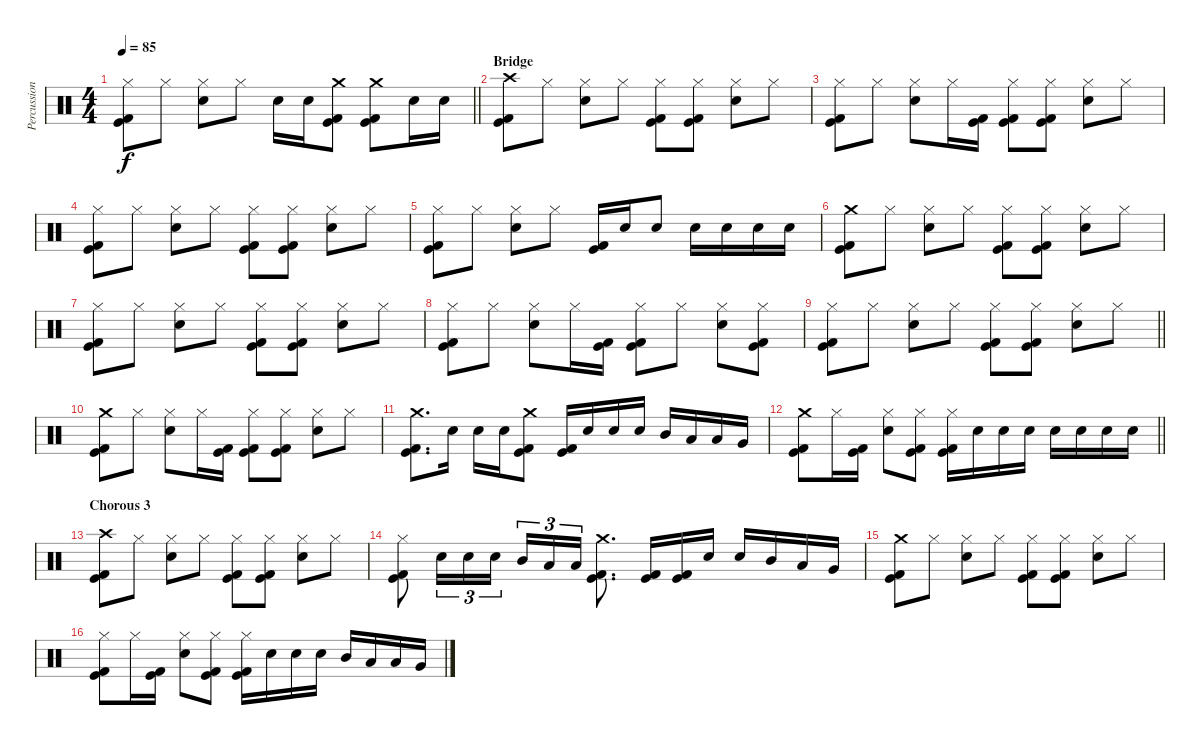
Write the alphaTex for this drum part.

\track ("Percussion" "Percussion") {instrument percussion}
\staff {score}
\articulation defaults
\ts (4 4)
\tempo 85
\clef neutral
\barLineRight lightlight
\ks c
("Hi-Hat (closed)" "Kick (hit)" "Kick (hit) 2").8{dy f} "Hi-Hat (closed)".8 ("Hi-Hat (closed)" "Electric Snare (hit)").8 "Hi-Hat (closed)".8 "Electric Snare (hit)".16 "Electric Snare (hit)".16 ("Crash medium (hit)" "Kick (hit)" "Kick (hit) 2").8 ("Crash medium (hit)" "Kick (hit)" "Kick (hit) 2").8 "Electric Snare (hit)".16 "Electric Snare (hit)".16 |
\section ("" "Bridge")
("Crash high (hit)" "Kick (hit)" "Kick (hit) 2").8 "Hi-Hat (closed)".8 ("Hi-Hat (closed)" "Electric Snare (hit)").8 "Hi-Hat (closed)".8 ("Hi-Hat (closed)" "Kick (hit)" "Kick (hit) 2").8 ("Hi-Hat (closed)" "Kick (hit)" "Kick (hit) 2").8 ("Hi-Hat (closed)" "Electric Snare (hit)").8 "Hi-Hat (closed)".8 |
("Hi-Hat (closed)" "Kick (hit)" "Kick (hit) 2").8 "Hi-Hat (closed)".8 ("Hi-Hat (closed)" "Electric Snare (hit)").8 "Hi-Hat (closed)".16 ("Kick (hit)" "Kick (hit) 2").16 ("Hi-Hat (closed)" "Kick (hit)" "Kick (hit) 2").8 ("Hi-Hat (closed)" "Kick (hit)" "Kick (hit) 2").8 ("Hi-Hat (closed)" "Electric Snare (hit)").8 "Hi-Hat (closed)".8 |
("Hi-Hat (closed)" "Kick (hit)" "Kick (hit) 2").8 "Hi-Hat (closed)".8 ("Hi-Hat (closed)" "Electric Snare (hit)").8 "Hi-Hat (closed)".8 ("Hi-Hat (closed)" "Kick (hit)" "Kick (hit) 2").8 ("Hi-Hat (closed)" "Kick (hit)" "Kick (hit) 2").8 ("Hi-Hat (closed)" "Electric Snare (hit)").8 "Hi-Hat (closed)".8 |
("Hi-Hat (closed)" "Kick (hit)" "Kick (hit) 2").8 "Hi-Hat (closed)".8 ("Hi-Hat (closed)" "Electric Snare (hit)").8 "Hi-Hat (closed)".8 ("Kick (hit)" "Kick (hit) 2").16 "Electric Snare (hit)".16 "Electric Snare (hit)".8 "Electric Snare (hit)".16 "Electric Snare (hit)".16 "Electric Snare (hit)".16 "Electric Snare (hit)".16 |
("Crash medium (hit)" "Kick (hit)" "Kick (hit) 2").8 "Hi-Hat (closed)".8 ("Hi-Hat (closed)" "Electric Snare (hit)").8 "Hi-Hat (closed)".8 ("Hi-Hat (closed)" "Kick (hit)" "Kick (hit) 2").8 ("Hi-Hat (closed)" "Kick (hit)" "Kick (hit) 2").8 ("Hi-Hat (closed)" "Electric Snare (hit)").8 "Hi-Hat (closed)".8 |
("Hi-Hat (closed)" "Kick (hit)" "Kick (hit) 2").8 "Hi-Hat (closed)".8 ("Hi-Hat (closed)" "Electric Snare (hit)").8 "Hi-Hat (closed)".8 ("Hi-Hat (closed)" "Kick (hit)" "Kick (hit) 2").8 ("Hi-Hat (closed)" "Kick (hit)" "Kick (hit) 2").8 ("Hi-Hat (closed)" "Electric Snare (hit)").8 "Hi-Hat (closed)".8 |
("Hi-Hat (closed)" "Kick (hit)" "Kick (hit) 2").8 "Hi-Hat (closed)".8 ("Hi-Hat (closed)" "Electric Snare (hit)").8 "Hi-Hat (closed)".16 ("Kick (hit)" "Kick (hit) 2").16 ("Hi-Hat (closed)" "Kick (hit)" "Kick (hit) 2").8 "Hi-Hat (closed)".8 ("Hi-Hat (closed)" "Electric Snare (hit)").8 ("Hi-Hat (closed)" "Kick (hit)" "Kick (hit) 2").8 |
\barLineRight lightlight
("Hi-Hat (closed)" "Kick (hit)" "Kick (hit) 2").8 "Hi-Hat (closed)".8 ("Hi-Hat (closed)" "Electric Snare (hit)").8 "Hi-Hat (closed)".8 ("Hi-Hat (closed)" "Kick (hit)" "Kick (hit) 2").8 ("Hi-Hat (closed)" "Kick (hit)" "Kick (hit) 2").8 ("Hi-Hat (closed)" "Electric Snare (hit)").8 "Hi-Hat (closed)".8 |
\section ("" "")
("Crash medium (hit)" "Kick (hit)" "Kick (hit) 2").8 "Hi-Hat (closed)".8 ("Hi-Hat (closed)" "Electric Snare (hit)").8 "Hi-Hat (closed)".16 ("Kick (hit)" "Kick (hit) 2").16 ("Hi-Hat (closed)" "Kick (hit)" "Kick (hit) 2").8 ("Hi-Hat (closed)" "Kick (hit)" "Kick (hit) 2").8 ("Hi-Hat (closed)" "Electric Snare (hit)").8 "Hi-Hat (closed)".8 |
("Crash medium (hit)" "Kick (hit)" "Kick (hit) 2").8{d} "Electric Snare (hit)".16 "Electric Snare (hit)".16 "Electric Snare (hit)".16 ("Crash medium (hit)" "Kick (hit)" "Kick (hit) 2").8 ("Kick (hit)" "Kick (hit) 2").16 "Electric Snare (hit)".16 "Electric Snare (hit)".16 "Electric Snare (hit)".16 "Mid Tom (hit)".16 "Low Tom (hit)".16 "Low Tom (hit)".16 "Very Low Tom (hit)".16 |
\barLineRight lightlight
("Crash medium (hit)" "Kick (hit)" "Kick (hit) 2").8 "Hi-Hat (closed)".16 ("Kick (hit)" "Kick (hit) 2").16 ("Hi-Hat (closed)" "Electric Snare (hit)").8 ("Hi-Hat (closed)" "Kick (hit)" "Kick (hit) 2").8 ("Hi-Hat (closed)" "Kick (hit)" "Kick (hit) 2").16 "Electric Snare (hit)".16 "Electric Snare (hit)".16 "Electric Snare (hit)".16 "Electric Snare (hit)".16 "Electric Snare (hit)".16 "Electric Snare (hit)".16 "Electric Snare (hit)".16 |
\section ("" "Chorous 3")
("Crash high (hit)" "Kick (hit)" "Kick (hit) 2").8 "Hi-Hat (closed)".8 ("Hi-Hat (closed)" "Electric Snare (hit)").8 "Hi-Hat (closed)".8 ("Hi-Hat (closed)" "Kick (hit)" "Kick (hit) 2").8 ("Hi-Hat (closed)" "Kick (hit)" "Kick (hit) 2").8 ("Hi-Hat (closed)" "Electric Snare (hit)").8 "Hi-Hat (closed)".8 |
("Hi-Hat (closed)" "Kick (hit)" "Kick (hit) 2").8 "Electric Snare (hit)".16{tu (3 2)} "Electric Snare (hit)".16{tu (3 2)} "Electric Snare (hit)".16{tu (3 2)} "Mid Tom (hit)".16{tu (3 2)} "Low Tom (hit)".16{tu (3 2)} "Low Tom (hit)".16{tu (3 2)} ("Crash medium (hit)" "Kick (hit)" "Kick (hit) 2").8{d} ("Kick (hit)" "Kick (hit) 2").16 ("Kick (hit)" "Kick (hit) 2").16 "Electric Snare (hit)".16 "Electric Snare (hit)".16 "Mid Tom (hit)".16 "Low Tom (hit)".16 "Very Low Tom (hit)".16 |
("Crash medium (hit)" "Kick (hit)" "Kick (hit) 2").8 "Hi-Hat (closed)".8 ("Hi-Hat (closed)" "Electric Snare (hit)").8 "Hi-Hat (closed)".8 ("Hi-Hat (closed)" "Kick (hit)" "Kick (hit) 2").8 ("Hi-Hat (closed)" "Kick (hit)" "Kick (hit) 2").8 ("Hi-Hat (closed)" "Electric Snare (hit)").8 "Hi-Hat (closed)".8 |
("Hi-Hat (closed)" "Kick (hit)" "Kick (hit) 2").8 "Hi-Hat (closed)".16 ("Kick (hit)" "Kick (hit) 2").16 ("Hi-Hat (closed)" "Electric Snare (hit)").8 ("Hi-Hat (closed)" "Kick (hit)" "Kick (hit) 2").8 ("Hi-Hat (closed)" "Kick (hit)" "Kick (hit) 2").16 "Electric Snare (hit)".16 "Electric Snare (hit)".16 "Electric Snare (hit)".16 "Mid Tom (hit)".16 "Low Tom (hit)".16 "Low Tom (hit)".16 "Very Low Tom (hit)".16
